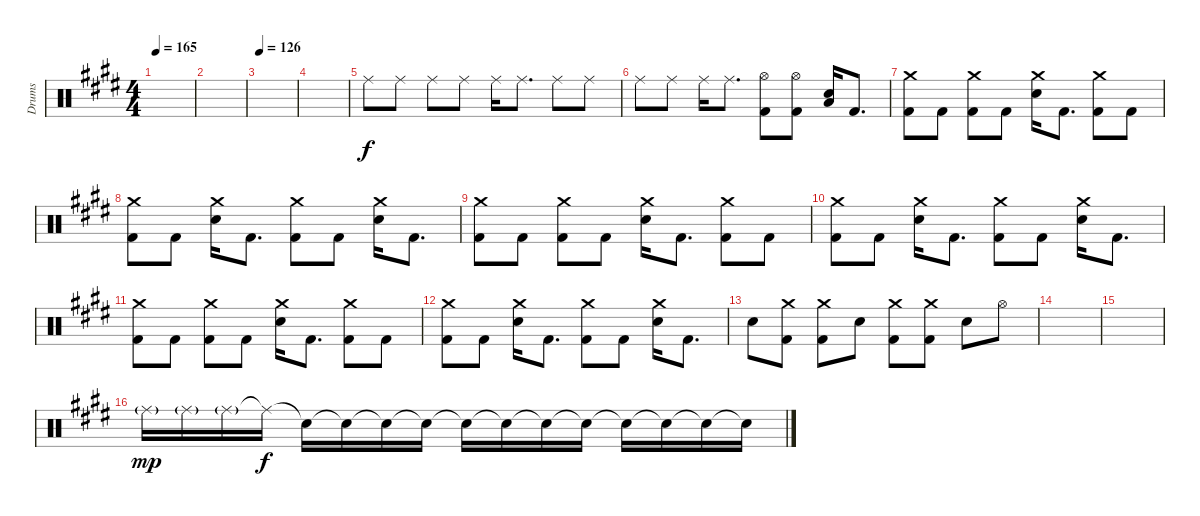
\track ("Drums" "Drums") {instrument percussion}
\staff {score}
\articulation defaults
\ts (4 4)
\tempo 165
\clef neutral
\ks e
|
|
\tempo 126
|
|
"Ride (middle)".8 "Ride (middle)".8 "Ride (middle)".8 "Ride (middle)".8 "Ride (middle)".16 "Ride (middle)".8{d} "Ride (middle)".8 "Ride (middle)".8 |
"Ride (middle)".8 "Ride (middle)".8 "Ride (middle)".16 "Ride (middle)".8{d} ("Hi-Hat (open)" "Kick (hit) 2").8 ("Hi-Hat (open)" "Kick (hit) 2").8 ("Low Floor Tom (hit)" "Snare (hit) 2").16 "Kick (hit) 2".8{d} |
("Crash medium (hit)" "Kick (hit) 2").8 "Kick (hit) 2".8 ("Crash medium (hit)" "Kick (hit) 2").8 "Kick (hit) 2".8 ("Crash medium (hit)" "Snare (hit) 2").16 "Kick (hit) 2".8{d} ("Crash medium (hit)" "Kick (hit) 2").8 "Kick (hit) 2".8 |
("Crash medium (hit)" "Kick (hit) 2").8 "Kick (hit) 2".8 ("Crash medium (hit)" "Snare (hit) 2").16 "Kick (hit) 2".8{d} ("Crash medium (hit)" "Kick (hit) 2").8 "Kick (hit) 2".8 ("Crash medium (hit)" "Snare (hit) 2").16 "Kick (hit) 2".8{d} |
("Crash medium (hit)" "Kick (hit) 2").8 "Kick (hit) 2".8 ("Crash medium (hit)" "Kick (hit) 2").8 "Kick (hit) 2".8 ("Crash medium (hit)" "Snare (hit) 2").16 "Kick (hit) 2".8{d} ("Crash medium (hit)" "Kick (hit) 2").8 "Kick (hit) 2".8 |
("Crash medium (hit)" "Kick (hit) 2").8 "Kick (hit) 2".8 ("Crash medium (hit)" "Snare (hit) 2").16 "Kick (hit) 2".8{d} ("Crash medium (hit)" "Kick (hit) 2").8 "Kick (hit) 2".8 ("Crash medium (hit)" "Snare (hit) 2").16 "Kick (hit) 2".8{d} |
("Crash medium (hit)" "Kick (hit) 2").8 "Kick (hit) 2".8 ("Crash medium (hit)" "Kick (hit) 2").8 "Kick (hit) 2".8 ("Crash medium (hit)" "Snare (hit) 2").16 "Kick (hit) 2".8{d} ("Crash medium (hit)" "Kick (hit) 2").8 "Kick (hit) 2".8 |
("Crash medium (hit)" "Kick (hit) 2").8 "Kick (hit) 2".8 ("Crash medium (hit)" "Snare (hit) 2").16 "Kick (hit) 2".8{d} ("Crash medium (hit)" "Kick (hit) 2").8 "Kick (hit) 2".8 ("Crash medium (hit)" "Snare (hit) 2").16 "Kick (hit) 2".8{d} |
"Snare (hit) 2".8 ("Crash medium (hit)" "Kick (hit) 2").8 ("Crash medium (hit)" "Kick (hit) 2").8 "Snare (hit) 2".8 ("Crash medium (hit)" "Kick (hit) 2").8 ("Crash medium (hit)" "Kick (hit) 2").8 "Snare (hit) 2".8 "Hi-Hat (open)".8 |
|
|
"Ride (middle)"{g}.16{dy mp} "Ride (middle)"{g}.16 "Ride (middle)"{g}.16 "Ride (middle)"{t}.16{dy f} "Snare (hit)"{t}.16 "Snare (hit)"{t}.16 "Snare (hit)"{t}.16 "Snare (hit)"{t}.16 "Snare (hit)"{t}.16 "Snare (hit)"{t}.16 "Snare (hit)"{t}.16 "Snare (hit)"{t}.16 "Snare (hit)"{t}.16 "Snare (hit)"{t}.16 "Snare (hit)"{t}.16 "Snare (hit)"{t}.16
